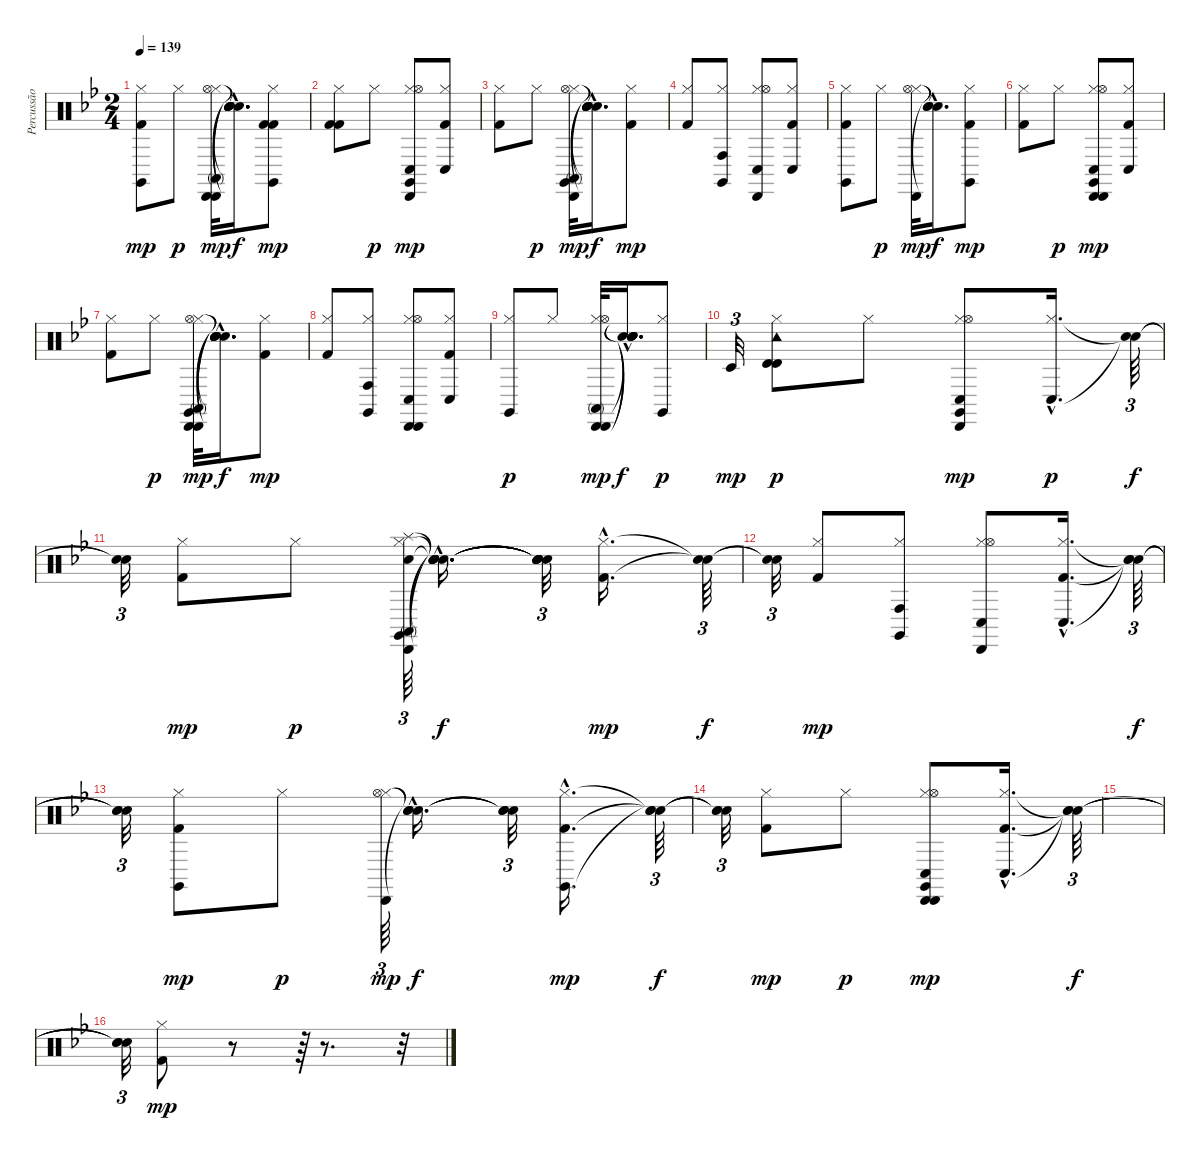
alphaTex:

\track ("Percussão" "Percussão") {instrument percussion}
\staff {score}
\articulation defaults
\ts (2 4)
\tempo 139
\clef neutral
\ks bb
("Hi-Hat (closed)" "Claves (hit)" "Kick (hit) 2").8{dy mp} "Hi-Hat (closed)".8{dy p} ("Conga high (mute)" "Cabasa (hit)" "Cabasa (hit)" "Hi-Hat (closed)" "Hi-Hat (open)").32{dy mp} ("Snare (hit)"{hac t} "Snare (hit)"{hac t} "Snare (hit)"{hac t} "Snare (hit)"{hac t} "Snare (hit)"{hac t}).16{d dy f} ("Hi-Hat (closed)" "Claves (hit)" "Kick (hit) 2" "Kick (hit) 2").8{dy mp} |
("Hi-Hat (closed)" "Kick (hit) 2" "Kick (hit) 2").8 "Hi-Hat (closed)".8{dy p} ("Cabasa (hit)" "Conga low (hit)" "Claves (hit)" "Hi-Hat (closed)" "Hi-Hat (open)").8{dy mp} ("Hi-Hat (closed)" "Conga low (hit)" "Kick (hit) 2").8 |
("Hi-Hat (closed)" "Kick (hit) 2").8 "Hi-Hat (closed)".8{dy p} ("Conga high (mute)" "Cabasa (hit)" "Claves (hit)" "Hi-Hat (closed)" "Hi-Hat (open)").32{dy mp} ("Snare (hit)"{hac t} "Snare (hit)"{hac t} "Snare (hit)"{hac t} "Snare (hit)"{hac t} "Snare (hit)"{hac t}).16{d dy f} ("Hi-Hat (closed)" "Kick (hit) 2").8{dy mp} |
("Hi-Hat (closed)" "Kick (hit) 2").8 ("Hi-Hat (closed)" "Claves (hit)" "Conga high (hit)").8 ("Cabasa (hit)" "Conga low (hit)" "Hi-Hat (closed)" "Hi-Hat (open)").8 ("Hi-Hat (closed)" "Conga low (hit)" "Kick (hit) 2").8 |
("Hi-Hat (closed)" "Claves (hit)" "Kick (hit) 2").8 "Hi-Hat (closed)".8{dy p} ("Cabasa (hit)" "Hi-Hat (closed)" "Hi-Hat (open)").32{dy mp} ("Snare (hit)"{hac t} "Snare (hit)"{hac t} "Snare (hit)"{hac t}).16{d dy f} ("Hi-Hat (closed)" "Claves (hit)" "Kick (hit) 2").8{dy mp} |
("Hi-Hat (closed)" "Kick (hit) 2").8 "Hi-Hat (closed)".8{dy p} ("Cabasa (hit)" "Cabasa (hit)" "Conga low (hit)" "Claves (hit)" "Hi-Hat (closed)" "Hi-Hat (open)").8{dy mp} ("Hi-Hat (closed)" "Conga low (hit)" "Kick (hit) 2").8 |
("Hi-Hat (closed)" "Kick (hit) 2").8 "Hi-Hat (closed)".8{dy p} ("Conga high (mute)" "Cabasa (hit)" "Cabasa (hit)" "Claves (hit)" "Hi-Hat (closed)" "Hi-Hat (open)").32{dy mp} ("Snare (hit)"{hac t} "Snare (hit)"{hac t} "Snare (hit)"{hac t} "Snare (hit)"{hac t} "Snare (hit)"{hac t} "Snare (hit)"{hac t}).16{d dy f} ("Hi-Hat (closed)" "Kick (hit) 2").8{dy mp} |
("Hi-Hat (closed)" "Kick (hit) 2").8 ("Hi-Hat (closed)" "Claves (hit)" "Conga high (hit)").8 ("Cabasa (hit)" "Cabasa (hit)" "Conga low (hit)" "Hi-Hat (closed)" "Hi-Hat (open)").8 ("Hi-Hat (closed)" "Conga low (hit)" "Kick (hit) 2").8 |
("Hi-Hat (closed)" "Claves (hit)").8{dy p} "Hi-Hat (closed)".8 ("Conga high (mute)" "Cabasa (hit)" "Cabasa (hit)" "Hi-Hat (closed)" "Hi-Hat (open)").32{dy mp} ("Snare (hit)"{hac t} "Snare (hit)"{hac t} "Snare (hit)"{hac t} "Snare (hit)"{hac t} "Snare (hit)"{hac t}).16{d dy f} ("Hi-Hat (closed)" "Claves (hit)").8{dy p} |
"Timbale low (hit)".32{tu (3 2) dy mp} ("Timbale high (hit)" "Tambourine (hit)" "Timbale high (hit)" "Hi-Hat (closed)").8{dy p} "Hi-Hat (closed)".8 ("Cabasa (hit)" "Conga low (hit)" "Claves (hit)" "Hi-Hat (closed)" "Hi-Hat (open)").8{dy mp} ("Hi-Hat (closed)"{hac} "Conga low (hit)"{hac}).16{d dy p} ("Snare (hit)"{t} "Snare (hit)"{t}).64{tu (3 2) dy f} |
("Snare (hit)"{t} "Snare (hit)"{t}).32{tu (3 2)} ("Hi-Hat (closed)" "Kick (hit) 2").8{dy mp} "Hi-Hat (closed)".8{dy p} ("Electric Snare (hit)" "Splash (hit)" "Conga high (mute)" "Cabasa (hit)" "Claves (hit)" "Hi-Hat (closed)").64{tu (3 2)} ("Snare (hit)"{hac t} "Snare (hit)"{hac t} "Snare (hit)"{hac t} "Snare (hit)"{hac t} "Snare (hit)"{hac t} "Snare (hit)"{hac t}).16{d dy f} ("Snare (hit)"{t} "Snare (hit)"{t} "Snare (hit)"{t} "Snare (hit)"{t} "Snare (hit)"{t} "Snare (hit)"{t}).32{tu (3 2)} ("Hi-Hat (closed)"{hac} "Kick (hit) 2"{hac}).16{d dy mp} ("Snare (hit)"{t} "Snare (hit)"{t}).64{tu (3 2) dy f} |
("Snare (hit)"{t} "Snare (hit)"{t}).32{tu (3 2)} ("Hi-Hat (closed)" "Kick (hit) 2").8{dy mp} ("Hi-Hat (closed)" "Claves (hit)" "Conga high (hit)").8 ("Cabasa (hit)" "Conga low (hit)" "Hi-Hat (closed)" "Hi-Hat (open)").8 ("Hi-Hat (closed)"{hac} "Conga low (hit)"{hac} "Kick (hit) 2"{hac}).16{d} ("Snare (hit)"{t} "Snare (hit)"{t} "Snare (hit)"{t}).64{tu (3 2) dy f} |
("Snare (hit)"{t} "Snare (hit)"{t} "Snare (hit)"{t}).32{tu (3 2)} ("Hi-Hat (closed)" "Claves (hit)" "Kick (hit) 2").8{dy mp} "Hi-Hat (closed)".8{dy p} ("Cabasa (hit)" "Hi-Hat (closed)" "Hi-Hat (open)").64{tu (3 2) dy mp} ("Snare (hit)"{hac t} "Snare (hit)"{hac t} "Snare (hit)"{hac t}).16{d dy f} ("Snare (hit)"{t} "Snare (hit)"{t} "Snare (hit)"{t}).32{tu (3 2)} ("Hi-Hat (closed)"{hac} "Claves (hit)"{hac} "Kick (hit) 2"{hac}).16{d dy mp} ("Snare (hit)"{t} "Snare (hit)"{t} "Snare (hit)"{t}).64{tu (3 2) dy f} |
("Snare (hit)"{t} "Snare (hit)"{t} "Snare (hit)"{t}).32{tu (3 2)} ("Hi-Hat (closed)" "Kick (hit) 2").8{dy mp} "Hi-Hat (closed)".8{dy p} ("Cabasa (hit)" "Cabasa (hit)" "Conga low (hit)" "Claves (hit)" "Hi-Hat (closed)" "Hi-Hat (open)").8{dy mp} ("Hi-Hat (closed)"{hac} "Conga low (hit)"{hac} "Kick (hit) 2"{hac}).16{d} ("Snare (hit)"{t} "Snare (hit)"{t} "Snare (hit)"{t}).64{tu (3 2) dy f} |
|
("Snare (hit)"{t} "Snare (hit)"{t} "Snare (hit)"{t}).32{tu (3 2)} ("Hi-Hat (closed)" "Kick (hit) 2").8{dy mp} r.8 r.64{tu (3 2)} r.8{d} r.32
